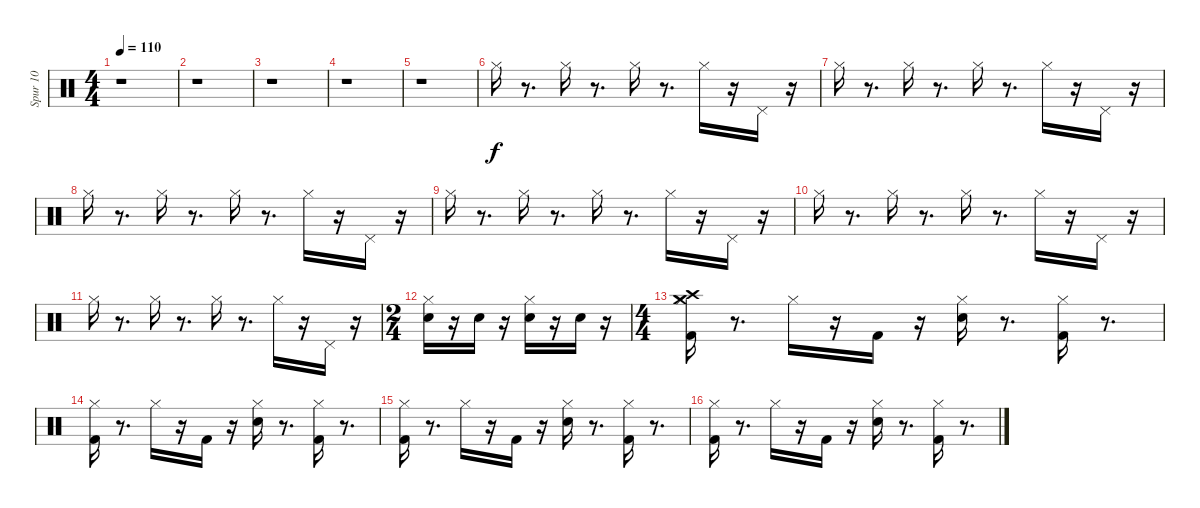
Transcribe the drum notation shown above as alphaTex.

\track ("Spur 10" "Spur 10") {instrument percussion}
\staff {score}
\articulation defaults
\ts (4 4)
\tempo 110
\clef neutral
\ks c
r.1{dy f} |
r.1 |
r.1 |
r.1 |
r.1 |
"Hi-Hat (closed)".16 r.8{d} "Hi-Hat (closed)".16 r.8{d} "Hi-Hat (closed)".16 r.8{d} "Hi-Hat (closed)".16 r.16 "Pedal Hi-Hat (hit)".16 r.16 |
"Hi-Hat (closed)".16 r.8{d} "Hi-Hat (closed)".16 r.8{d} "Hi-Hat (closed)".16 r.8{d} "Hi-Hat (closed)".16 r.16 "Pedal Hi-Hat (hit)".16 r.16 |
"Hi-Hat (closed)".16 r.8{d} "Hi-Hat (closed)".16 r.8{d} "Hi-Hat (closed)".16 r.8{d} "Hi-Hat (closed)".16 r.16 "Pedal Hi-Hat (hit)".16 r.16 |
"Hi-Hat (closed)".16 r.8{d} "Hi-Hat (closed)".16 r.8{d} "Hi-Hat (closed)".16 r.8{d} "Hi-Hat (closed)".16 r.16 "Pedal Hi-Hat (hit)".16 r.16 |
"Hi-Hat (closed)".16 r.8{d} "Hi-Hat (closed)".16 r.8{d} "Hi-Hat (closed)".16 r.8{d} "Hi-Hat (closed)".16 r.16 "Pedal Hi-Hat (hit)".16 r.16 |
"Hi-Hat (closed)".16 r.8{d} "Hi-Hat (closed)".16 r.8{d} "Hi-Hat (closed)".16 r.8{d} "Hi-Hat (closed)".16 r.16 "Pedal Hi-Hat (hit)".16 r.16 |
\ts (2 4)
("Hi-Hat (closed)" "Snare (hit) 2").16 r.16 "Snare (hit) 2".16 r.16 ("Snare (hit) 2" "Hi-Hat (closed)").16 r.16 "Snare (hit) 2".16 r.16 |
\ts (4 4)
("Kick (hit) 2" "Hi-Hat (closed)" "Crash high (hit)" "Crash medium (hit)").16 r.8{d} "Hi-Hat (closed)".16 r.16 "Kick (hit) 2".16 r.16 ("Hi-Hat (closed)" "Snare (hit) 2").16 r.8{d} ("Hi-Hat (closed)" "Kick (hit) 2").16 r.8{d} |
("Hi-Hat (closed)" "Kick (hit) 2").16 r.8{d} "Hi-Hat (closed)".16 r.16 "Kick (hit) 2".16 r.16 ("Hi-Hat (closed)" "Snare (hit) 2").16 r.8{d} ("Hi-Hat (closed)" "Kick (hit) 2").16 r.8{d} |
("Hi-Hat (closed)" "Kick (hit) 2").16 r.8{d} "Hi-Hat (closed)".16 r.16 "Kick (hit) 2".16 r.16 ("Hi-Hat (closed)" "Snare (hit) 2").16 r.8{d} ("Hi-Hat (closed)" "Kick (hit) 2").16 r.8{d} |
("Hi-Hat (closed)" "Kick (hit) 2").16 r.8{d} "Hi-Hat (closed)".16 r.16 "Kick (hit) 2".16 r.16 ("Hi-Hat (closed)" "Snare (hit) 2").16 r.8{d} ("Hi-Hat (closed)" "Kick (hit) 2").16 r.8{d}
